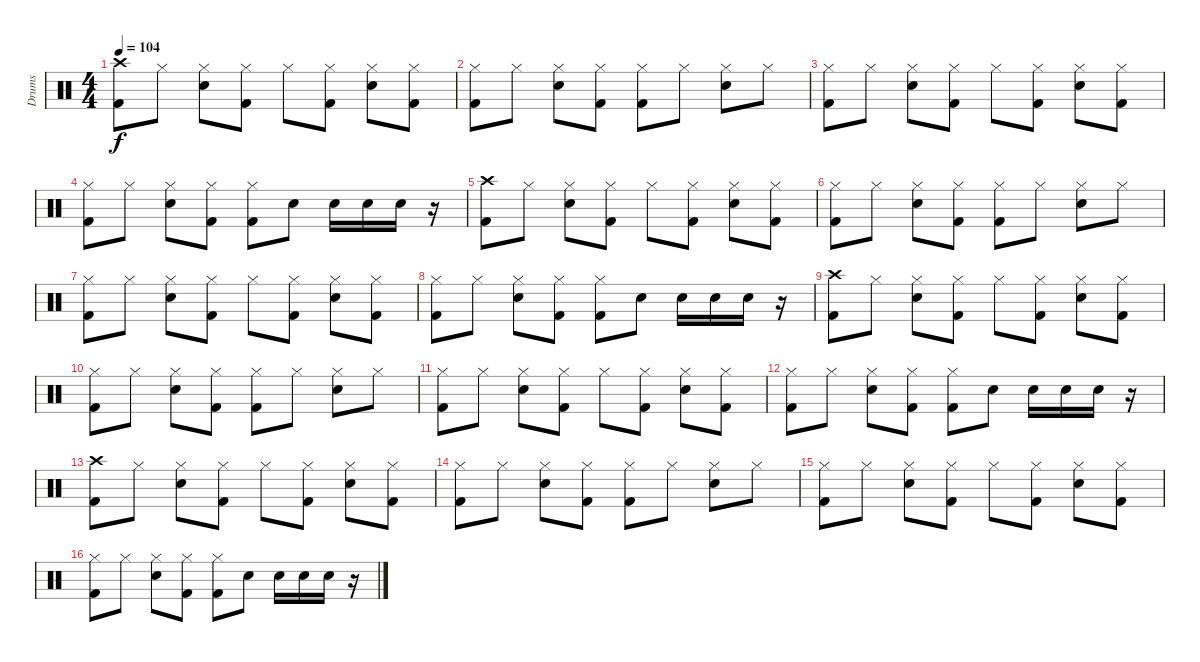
\track ("Drums" "Drums") {instrument percussion}
\staff {score}
\articulation defaults
\ts (4 4)
\tempo 104
\clef neutral
\ks c
("Crash high (hit)" "Kick (hit) 2").8{dy f} "Hi-Hat (closed)".8 ("Hi-Hat (closed)" "Snare (hit) 2").8 ("Hi-Hat (closed)" "Kick (hit) 2").8 "Hi-Hat (closed)".8 ("Hi-Hat (closed)" "Kick (hit) 2").8 ("Hi-Hat (closed)" "Snare (hit) 2").8 ("Hi-Hat (closed)" "Kick (hit) 2").8 |
("Hi-Hat (closed)" "Kick (hit) 2").8 "Hi-Hat (closed)".8 ("Hi-Hat (closed)" "Snare (hit) 2").8 ("Hi-Hat (closed)" "Kick (hit) 2").8 ("Hi-Hat (closed)" "Kick (hit) 2").8 "Hi-Hat (closed)".8 ("Hi-Hat (closed)" "Snare (hit) 2").8 "Hi-Hat (closed)".8 |
("Hi-Hat (closed)" "Kick (hit) 2").8 "Hi-Hat (closed)".8 ("Hi-Hat (closed)" "Snare (hit) 2").8 ("Hi-Hat (closed)" "Kick (hit) 2").8 "Hi-Hat (closed)".8 ("Hi-Hat (closed)" "Kick (hit) 2").8 ("Hi-Hat (closed)" "Snare (hit) 2").8 ("Hi-Hat (closed)" "Kick (hit) 2").8 |
("Hi-Hat (closed)" "Kick (hit) 2").8 "Hi-Hat (closed)".8 ("Hi-Hat (closed)" "Snare (hit) 2").8 ("Hi-Hat (closed)" "Kick (hit) 2").8 ("Hi-Hat (closed)" "Kick (hit) 2").8 "Snare (hit) 2".8 "Snare (hit) 2".16 "Snare (hit) 2".16 "Snare (hit) 2".16 r.16 |
("Crash high (hit)" "Kick (hit) 2").8 "Hi-Hat (closed)".8 ("Hi-Hat (closed)" "Snare (hit) 2").8 ("Hi-Hat (closed)" "Kick (hit) 2").8 "Hi-Hat (closed)".8 ("Hi-Hat (closed)" "Kick (hit) 2").8 ("Hi-Hat (closed)" "Snare (hit) 2").8 ("Hi-Hat (closed)" "Kick (hit) 2").8 |
("Hi-Hat (closed)" "Kick (hit) 2").8 "Hi-Hat (closed)".8 ("Hi-Hat (closed)" "Snare (hit) 2").8 ("Hi-Hat (closed)" "Kick (hit) 2").8 ("Hi-Hat (closed)" "Kick (hit) 2").8 "Hi-Hat (closed)".8 ("Hi-Hat (closed)" "Snare (hit) 2").8 "Hi-Hat (closed)".8 |
("Hi-Hat (closed)" "Kick (hit) 2").8 "Hi-Hat (closed)".8 ("Hi-Hat (closed)" "Snare (hit) 2").8 ("Hi-Hat (closed)" "Kick (hit) 2").8 "Hi-Hat (closed)".8 ("Hi-Hat (closed)" "Kick (hit) 2").8 ("Hi-Hat (closed)" "Snare (hit) 2").8 ("Hi-Hat (closed)" "Kick (hit) 2").8 |
("Hi-Hat (closed)" "Kick (hit) 2").8 "Hi-Hat (closed)".8 ("Hi-Hat (closed)" "Snare (hit) 2").8 ("Hi-Hat (closed)" "Kick (hit) 2").8 ("Hi-Hat (closed)" "Kick (hit) 2").8 "Snare (hit) 2".8 "Snare (hit) 2".16 "Snare (hit) 2".16 "Snare (hit) 2".16 r.16 |
("Crash high (hit)" "Kick (hit) 2").8 "Hi-Hat (closed)".8 ("Hi-Hat (closed)" "Snare (hit) 2").8 ("Hi-Hat (closed)" "Kick (hit) 2").8 "Hi-Hat (closed)".8 ("Hi-Hat (closed)" "Kick (hit) 2").8 ("Hi-Hat (closed)" "Snare (hit) 2").8 ("Hi-Hat (closed)" "Kick (hit) 2").8 |
("Hi-Hat (closed)" "Kick (hit) 2").8 "Hi-Hat (closed)".8 ("Hi-Hat (closed)" "Snare (hit) 2").8 ("Hi-Hat (closed)" "Kick (hit) 2").8 ("Hi-Hat (closed)" "Kick (hit) 2").8 "Hi-Hat (closed)".8 ("Hi-Hat (closed)" "Snare (hit) 2").8 "Hi-Hat (closed)".8 |
("Hi-Hat (closed)" "Kick (hit) 2").8 "Hi-Hat (closed)".8 ("Hi-Hat (closed)" "Snare (hit) 2").8 ("Hi-Hat (closed)" "Kick (hit) 2").8 "Hi-Hat (closed)".8 ("Hi-Hat (closed)" "Kick (hit) 2").8 ("Hi-Hat (closed)" "Snare (hit) 2").8 ("Hi-Hat (closed)" "Kick (hit) 2").8 |
("Hi-Hat (closed)" "Kick (hit) 2").8 "Hi-Hat (closed)".8 ("Hi-Hat (closed)" "Snare (hit) 2").8 ("Hi-Hat (closed)" "Kick (hit) 2").8 ("Hi-Hat (closed)" "Kick (hit) 2").8 "Snare (hit) 2".8 "Snare (hit) 2".16 "Snare (hit) 2".16 "Snare (hit) 2".16 r.16 |
("Crash high (hit)" "Kick (hit) 2").8 "Hi-Hat (closed)".8 ("Hi-Hat (closed)" "Snare (hit) 2").8 ("Hi-Hat (closed)" "Kick (hit) 2").8 "Hi-Hat (closed)".8 ("Hi-Hat (closed)" "Kick (hit) 2").8 ("Hi-Hat (closed)" "Snare (hit) 2").8 ("Hi-Hat (closed)" "Kick (hit) 2").8 |
("Hi-Hat (closed)" "Kick (hit) 2").8 "Hi-Hat (closed)".8 ("Hi-Hat (closed)" "Snare (hit) 2").8 ("Hi-Hat (closed)" "Kick (hit) 2").8 ("Hi-Hat (closed)" "Kick (hit) 2").8 "Hi-Hat (closed)".8 ("Hi-Hat (closed)" "Snare (hit) 2").8 "Hi-Hat (closed)".8 |
("Hi-Hat (closed)" "Kick (hit) 2").8 "Hi-Hat (closed)".8 ("Hi-Hat (closed)" "Snare (hit) 2").8 ("Hi-Hat (closed)" "Kick (hit) 2").8 "Hi-Hat (closed)".8 ("Hi-Hat (closed)" "Kick (hit) 2").8 ("Hi-Hat (closed)" "Snare (hit) 2").8 ("Hi-Hat (closed)" "Kick (hit) 2").8 |
("Hi-Hat (closed)" "Kick (hit) 2").8 "Hi-Hat (closed)".8 ("Hi-Hat (closed)" "Snare (hit) 2").8 ("Hi-Hat (closed)" "Kick (hit) 2").8 ("Hi-Hat (closed)" "Kick (hit) 2").8 "Snare (hit) 2".8 "Snare (hit) 2".16 "Snare (hit) 2".16 "Snare (hit) 2".16 r.16
